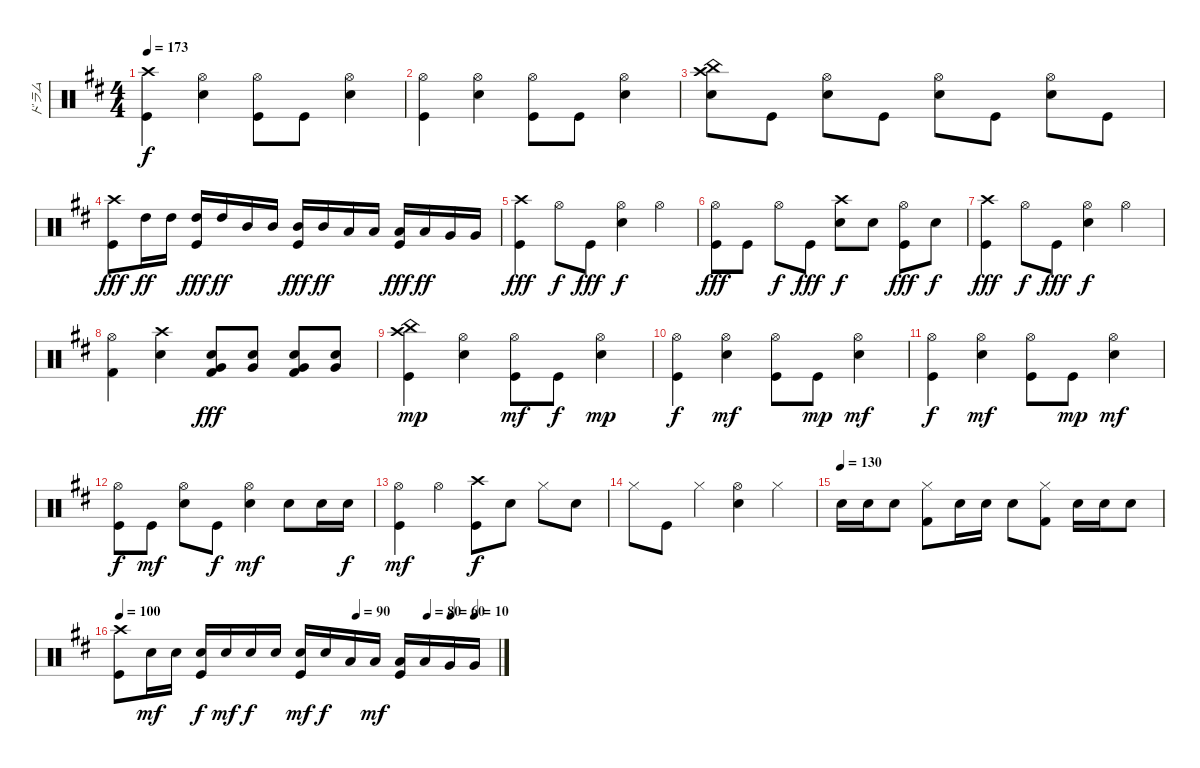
\track ("ドラム" "ドラム") {mute instrument percussion}
\staff {score}
\articulation defaults
\ts (4 4)
\tempo 173
\clef neutral
\ks d
("Crash high (hit)" "Kick (hit)").4{dy f} ("Hi-Hat (open)" "Snare (hit) 2").4 ("Hi-Hat (open)" "Kick (hit)").8 "Kick (hit)".8 ("Hi-Hat (open)" "Snare (hit) 2").4 |
("Hi-Hat (open)" "Kick (hit)").4 ("Hi-Hat (open)" "Snare (hit) 2").4 ("Hi-Hat (open)" "Kick (hit)").8 "Kick (hit)".8 ("Hi-Hat (open)" "Snare (hit) 2").4 |
("Crash high (hit)" "China (hit)" "Snare (hit) 2").8 "Kick (hit)".8 ("Hi-Hat (open)" "Snare (hit) 2").8 "Kick (hit)".8 ("Hi-Hat (open)" "Snare (hit) 2").8 "Kick (hit)".8 ("Hi-Hat (open)" "Snare (hit) 2").8 "Kick (hit)".8 |
("Crash high (hit)" "Kick (hit)").8{dy fff} "High Tom (hit)".16{dy ff} "High Tom (hit)".16 ("High Tom (hit)" "Kick (hit)").16{dy fff} "High Tom (hit)".16{dy ff} "Mid Tom (hit)".16 "Mid Tom (hit)".16 ("Mid Tom (hit)" "Kick (hit)").16{dy fff} "Mid Tom (hit)".16{dy ff} "Low Tom (hit)".16 "Low Tom (hit)".16 ("Low Tom (hit)" "Kick (hit)").16{dy fff} "Low Tom (hit)".16{dy ff} "Very Low Tom (hit)".16 "Very Low Tom (hit)".16 |
("Crash high (hit)" "Kick (hit)").4{dy fff} "Hi-Hat (open)".8{dy f} "Kick (hit)".8{dy fff} ("Hi-Hat (open)" "Snare (hit) 2").4{dy f} "Hi-Hat (open)".4 |
("Hi-Hat (open)" "Kick (hit)").8{dy fff} "Kick (hit)".8 "Hi-Hat (open)".8{dy f} "Kick (hit)".8{dy fff} ("Crash high (hit)" "Snare (hit) 2").8{dy f} "Snare (hit) 2".8 ("Hi-Hat (open)" "Kick (hit)").8{dy fff} "Snare (hit) 2".8{dy f} |
("Crash high (hit)" "Kick (hit)").4{dy fff} "Hi-Hat (open)".8{dy f} "Kick (hit)".8{dy fff} ("Hi-Hat (open)" "Snare (hit) 2").4{dy f} "Hi-Hat (open)".4 |
("Hi-Hat (open)" "Kick (hit) 2").4 ("Crash high (hit)" "Snare (hit) 2").4 ("Snare (hit) 2" "Very Low Tom (hit)" "Kick (hit) 2").8{dy fff} ("Snare (hit) 2" "Very Low Tom (hit)").8 ("Snare (hit) 2" "Very Low Tom (hit)" "Kick (hit) 2").8 ("Snare (hit) 2" "Very Low Tom (hit)").8 |
("China (hit)" "Crash high (hit)" "Kick (hit)").4{dy mp volume 12} ("Hi-Hat (open)" "Snare (hit) 2").4 ("Hi-Hat (open)" "Kick (hit)").8{dy mf} "Kick (hit)".8{dy f} ("Hi-Hat (open)" "Snare (hit) 2").4{dy mp} |
("Hi-Hat (open)" "Kick (hit)").4{dy f} ("Hi-Hat (open)" "Snare (hit) 2").4{dy mf} ("Hi-Hat (open)" "Kick (hit)").8 "Kick (hit)".8{dy mp} ("Hi-Hat (open)" "Snare (hit) 2").4{dy mf} |
("Hi-Hat (open)" "Kick (hit)").4{dy f} ("Hi-Hat (open)" "Snare (hit) 2").4{dy mf} ("Hi-Hat (open)" "Kick (hit)").8 "Kick (hit)".8{dy mp} ("Hi-Hat (open)" "Snare (hit) 2").4{dy mf} |
("Hi-Hat (open)" "Kick (hit)").8{dy f} "Kick (hit)".8{dy mf} ("Hi-Hat (open)" "Snare (hit) 2").8 "Kick (hit)".8{dy f} ("Hi-Hat (open)" "Snare (hit) 2").4{dy mf} "Snare (hit) 2".8 "Snare (hit) 2".16 "Snare (hit) 2".16{dy f} |
("Hi-Hat (open)" "Kick (hit)").4{dy mf} "Hi-Hat (open)".4 ("Crash high (hit)" "Kick (hit)").8{dy f} "Snare (hit) 2".8 "Hi-Hat (closed)".8 "Snare (hit) 2".8 |
"Hi-Hat (closed)".8 "Kick (hit)".8 "Hi-Hat (closed)".4 ("Hi-Hat (open)" "Snare (hit) 2").4 "Hi-Hat (closed)".4 |
\tempo (130)
"Electric Snare (hit)".16 "Electric Snare (hit)".16 "Electric Snare (hit)".8 ("Kick (hit) 2" "Hi-Hat (closed)").8 "Electric Snare (hit)".16 "Electric Snare (hit)".16 "Electric Snare (hit)".8 ("Kick (hit) 2" "Hi-Hat (closed)").8 "Electric Snare (hit)".16 "Electric Snare (hit)".16 "Electric Snare (hit)".8 |
\tempo 100
\tempo (90 0.625)
\tempo (80 0.8125)
\tempo (60 0.875)
\tempo (10 0.9375)
("Crash high (hit)" "Kick (hit)").8 "Snare (hit) 2".16{dy mf} "Snare (hit) 2".16 ("Snare (hit) 2" "Kick (hit)").16{dy f} "Snare (hit) 2".16{dy mf} "Snare (hit) 2".16{dy f} "Snare (hit) 2".16 ("Snare (hit) 2" "Kick (hit)").16{dy mf} "Snare (hit) 2".16{dy f} "Low Tom (hit)".16 "Low Tom (hit)".16{dy mf} ("Low Tom (hit)" "Kick (hit)").16 "Low Tom (hit)".16 "Very Low Tom (hit)".16 "Very Low Tom (hit)".16
